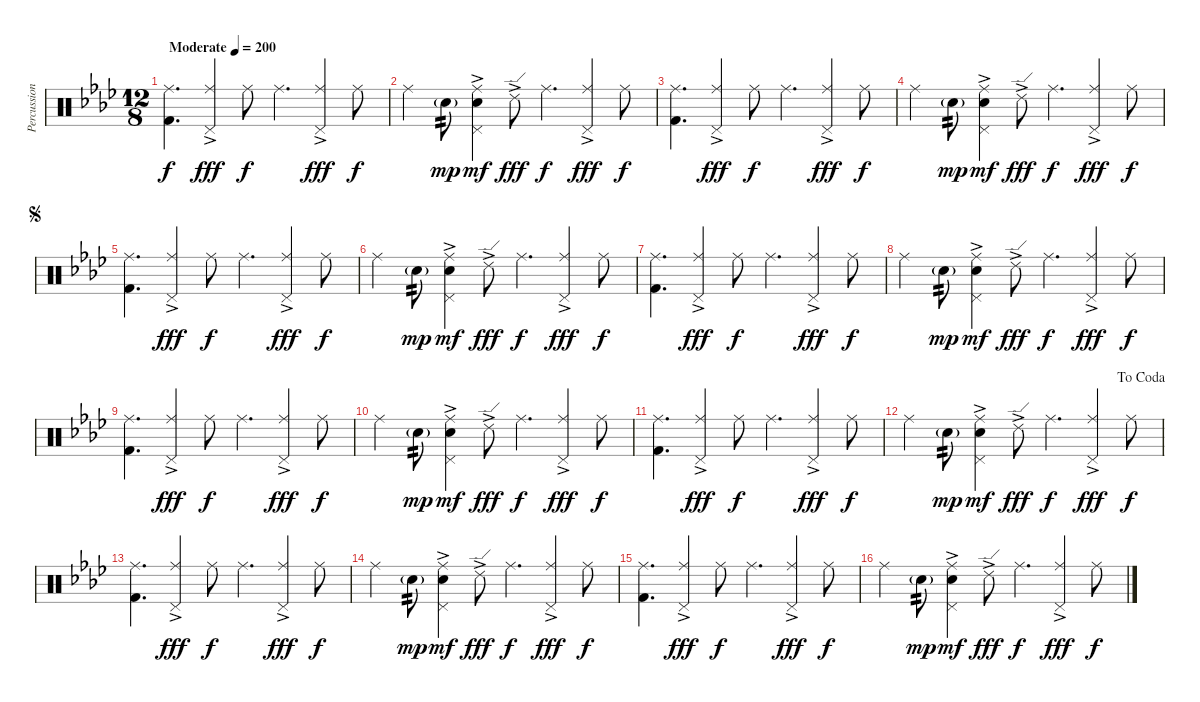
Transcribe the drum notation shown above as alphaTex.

\track ("Percussion" "Percussion") {instrument percussion}
\staff {score}
\articulation defaults
\ts (12 8)
\tempo (200 "Moderate")
\clef neutral
\ks fminor
("Ride (middle)" "Kick (hit) 2").4{d dy f volume 12 balance 8} ("Ride (middle)" "Pedal Hi-Hat (hit)"{ac}).4{dy fff} "Ride (middle)".8{dy f} "Ride (middle)".4{d} ("Ride (middle)" "Pedal Hi-Hat (hit)"{ac}).4{dy fff} "Ride (middle)".8{dy f} |
"Ride (middle)".4 "Snare (hit) 2"{g}.8{tp 2 dy mp} ("Ride (middle)" "Pedal Hi-Hat (hit)"{ac} "Snare (hit) 2").4{dy mf} "Ride (edge) 2"{ac}.8{dy fff} "Ride (middle)".4{d dy f} ("Ride (middle)" "Pedal Hi-Hat (hit)"{ac}).4{dy fff} "Ride (middle)".8{dy f} |
("Ride (middle)" "Kick (hit) 2").4{d volume 12 balance 8} ("Ride (middle)" "Pedal Hi-Hat (hit)"{ac}).4{dy fff} "Ride (middle)".8{dy f} "Ride (middle)".4{d} ("Ride (middle)" "Pedal Hi-Hat (hit)"{ac}).4{dy fff} "Ride (middle)".8{dy f} |
"Ride (middle)".4 "Snare (hit) 2"{g}.8{tp 2 dy mp} ("Ride (middle)" "Pedal Hi-Hat (hit)"{ac} "Snare (hit) 2").4{dy mf} "Ride (edge) 2"{ac}.8{dy fff} "Ride (middle)".4{d dy f} ("Ride (middle)" "Pedal Hi-Hat (hit)"{ac}).4{dy fff} "Ride (middle)".8{dy f} |
\jump segno
("Ride (middle)" "Kick (hit) 2").4{d volume 12 balance 8} ("Ride (middle)" "Pedal Hi-Hat (hit)"{ac}).4{dy fff} "Ride (middle)".8{dy f} "Ride (middle)".4{d} ("Ride (middle)" "Pedal Hi-Hat (hit)"{ac}).4{dy fff} "Ride (middle)".8{dy f} |
"Ride (middle)".4 "Snare (hit) 2"{g}.8{tp 2 dy mp} ("Ride (middle)" "Pedal Hi-Hat (hit)"{ac} "Snare (hit) 2").4{dy mf} "Ride (edge) 2"{ac}.8{dy fff} "Ride (middle)".4{d dy f} ("Ride (middle)" "Pedal Hi-Hat (hit)"{ac}).4{dy fff} "Ride (middle)".8{dy f} |
("Ride (middle)" "Kick (hit) 2").4{d volume 12 balance 8} ("Ride (middle)" "Pedal Hi-Hat (hit)"{ac}).4{dy fff} "Ride (middle)".8{dy f} "Ride (middle)".4{d} ("Ride (middle)" "Pedal Hi-Hat (hit)"{ac}).4{dy fff} "Ride (middle)".8{dy f} |
"Ride (middle)".4 "Snare (hit) 2"{g}.8{tp 2 dy mp} ("Ride (middle)" "Pedal Hi-Hat (hit)"{ac} "Snare (hit) 2").4{dy mf} "Ride (edge) 2"{ac}.8{dy fff} "Ride (middle)".4{d dy f} ("Ride (middle)" "Pedal Hi-Hat (hit)"{ac}).4{dy fff} "Ride (middle)".8{dy f} |
("Ride (middle)" "Kick (hit) 2").4{d volume 12 balance 8} ("Ride (middle)" "Pedal Hi-Hat (hit)"{ac}).4{dy fff} "Ride (middle)".8{dy f} "Ride (middle)".4{d} ("Ride (middle)" "Pedal Hi-Hat (hit)"{ac}).4{dy fff} "Ride (middle)".8{dy f} |
"Ride (middle)".4 "Snare (hit) 2"{g}.8{tp 2 dy mp} ("Ride (middle)" "Pedal Hi-Hat (hit)"{ac} "Snare (hit) 2").4{dy mf} "Ride (edge) 2"{ac}.8{dy fff} "Ride (middle)".4{d dy f} ("Ride (middle)" "Pedal Hi-Hat (hit)"{ac}).4{dy fff} "Ride (middle)".8{dy f} |
("Ride (middle)" "Kick (hit) 2").4{d volume 12 balance 8} ("Ride (middle)" "Pedal Hi-Hat (hit)"{ac}).4{dy fff} "Ride (middle)".8{dy f} "Ride (middle)".4{d} ("Ride (middle)" "Pedal Hi-Hat (hit)"{ac}).4{dy fff} "Ride (middle)".8{dy f} |
\jump dacoda "Ride (middle)".4 "Snare (hit) 2"{g}.8{tp 2 dy mp}
("Ride (middle)" "Pedal Hi-Hat (hit)"{ac} "Snare (hit) 2").4{dy mf} "Ride (edge) 2"{ac}.8{dy fff} "Ride (middle)".4{d dy f} ("Ride (middle)" "Pedal Hi-Hat (hit)"{ac}).4{dy fff} "Ride (middle)".8{dy f} |
("Ride (middle)" "Kick (hit) 2").4{d volume 12 balance 8} ("Ride (middle)" "Pedal Hi-Hat (hit)"{ac}).4{dy fff} "Ride (middle)".8{dy f} "Ride (middle)".4{d} ("Ride (middle)" "Pedal Hi-Hat (hit)"{ac}).4{dy fff} "Ride (middle)".8{dy f} |
"Ride (middle)".4 "Snare (hit) 2"{g}.8{tp 2 dy mp} ("Ride (middle)" "Pedal Hi-Hat (hit)"{ac} "Snare (hit) 2").4{dy mf} "Ride (edge) 2"{ac}.8{dy fff} "Ride (middle)".4{d dy f} ("Ride (middle)" "Pedal Hi-Hat (hit)"{ac}).4{dy fff} "Ride (middle)".8{dy f} |
("Ride (middle)" "Kick (hit) 2").4{d volume 12 balance 8} ("Ride (middle)" "Pedal Hi-Hat (hit)"{ac}).4{dy fff} "Ride (middle)".8{dy f} "Ride (middle)".4{d} ("Ride (middle)" "Pedal Hi-Hat (hit)"{ac}).4{dy fff} "Ride (middle)".8{dy f} |
"Ride (middle)".4 "Snare (hit) 2"{g}.8{tp 2 dy mp} ("Ride (middle)" "Pedal Hi-Hat (hit)"{ac} "Snare (hit) 2").4{dy mf} "Ride (edge) 2"{ac}.8{dy fff} "Ride (middle)".4{d dy f} ("Ride (middle)" "Pedal Hi-Hat (hit)"{ac}).4{dy fff} "Ride (middle)".8{dy f}
